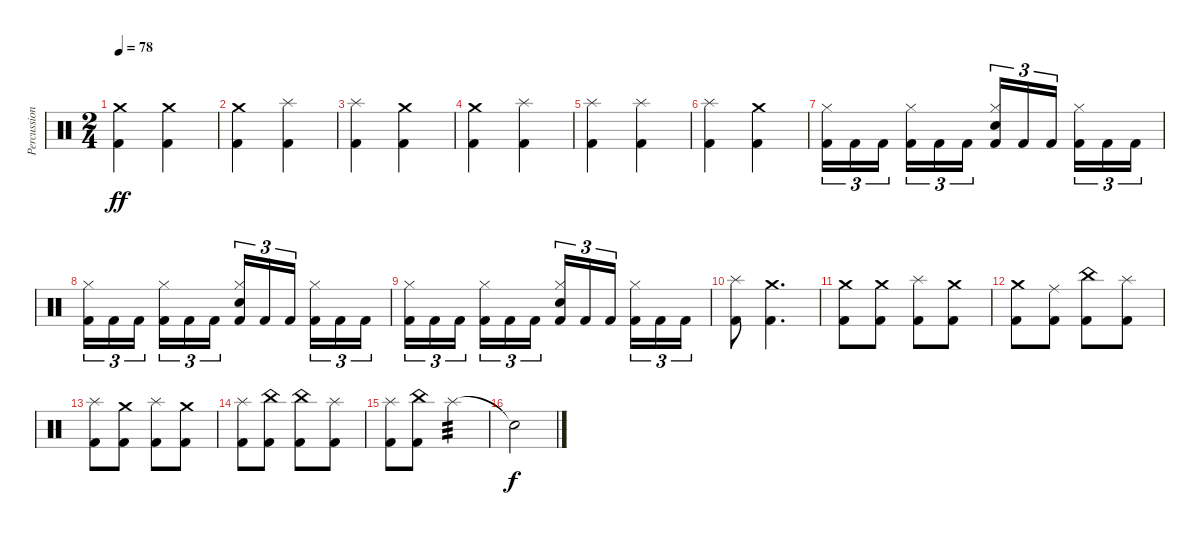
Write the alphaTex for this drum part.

\track ("Percussion" "Percussion") {instrument percussion}
\staff {score}
\articulation defaults
\ts (2 4)
\tempo 78
\clef neutral
\ks c
("Kick (hit) 2" "Crash medium (hit)").4{dy ff} ("Kick (hit) 2" "Crash medium (hit)").4 |
("Kick (hit) 2" "Crash medium (hit)").4 ("Kick (hit) 2" "Splash (hit)").4 |
("Kick (hit) 2" "Splash (hit)").4 ("Kick (hit) 2" "Crash medium (hit)").4 |
("Kick (hit) 2" "Crash medium (hit)").4 ("Kick (hit) 2" "Splash (hit)").4 |
("Kick (hit) 2" "Splash (hit)").4 ("Kick (hit) 2" "Splash (hit)").4 |
("Kick (hit) 2" "Splash (hit)").4 ("Kick (hit) 2" "Crash medium (hit)").4 |
("Kick (hit) 2" "Hi-Hat (closed)").16{tu (3 2)} "Kick (hit) 2".16{tu (3 2)} "Kick (hit) 2".16{tu (3 2) beam splitsecondary} ("Kick (hit) 2" "Hi-Hat (closed)").16{tu (3 2)} "Kick (hit) 2".16{tu (3 2)} "Kick (hit) 2".16{tu (3 2)} ("Kick (hit) 2" "Snare (hit) 2" "Hi-Hat (closed)").16{tu (3 2)} "Kick (hit) 2".16{tu (3 2)} "Kick (hit) 2".16{tu (3 2) beam splitsecondary} ("Kick (hit) 2" "Hi-Hat (closed)").16{tu (3 2)} "Kick (hit) 2".16{tu (3 2)} "Kick (hit) 2".16{tu (3 2)} |
("Kick (hit) 2" "Hi-Hat (closed)").16{tu (3 2)} "Kick (hit) 2".16{tu (3 2)} "Kick (hit) 2".16{tu (3 2) beam splitsecondary} ("Kick (hit) 2" "Hi-Hat (closed)").16{tu (3 2)} "Kick (hit) 2".16{tu (3 2)} "Kick (hit) 2".16{tu (3 2)} ("Kick (hit) 2" "Snare (hit) 2" "Hi-Hat (closed)").16{tu (3 2)} "Kick (hit) 2".16{tu (3 2)} "Kick (hit) 2".16{tu (3 2) beam splitsecondary} ("Kick (hit) 2" "Hi-Hat (closed)").16{tu (3 2)} "Kick (hit) 2".16{tu (3 2)} "Kick (hit) 2".16{tu (3 2)} |
("Kick (hit) 2" "Hi-Hat (closed)").16{tu (3 2)} "Kick (hit) 2".16{tu (3 2)} "Kick (hit) 2".16{tu (3 2) beam splitsecondary} ("Kick (hit) 2" "Hi-Hat (closed)").16{tu (3 2)} "Kick (hit) 2".16{tu (3 2)} "Kick (hit) 2".16{tu (3 2)} ("Kick (hit) 2" "Snare (hit) 2" "Hi-Hat (closed)").16{tu (3 2)} "Kick (hit) 2".16{tu (3 2)} "Kick (hit) 2".16{tu (3 2) beam splitsecondary} ("Kick (hit) 2" "Hi-Hat (closed)").16{tu (3 2)} "Kick (hit) 2".16{tu (3 2)} "Kick (hit) 2".16{tu (3 2)} |
("Kick (hit) 2" "Splash (hit)").8 ("Kick (hit) 2" "Crash medium (hit)").4{d} |
("Kick (hit) 2" "Crash medium (hit)").8 ("Kick (hit) 2" "Crash medium (hit)").8 ("Kick (hit) 2" "Splash (hit)").8 ("Kick (hit) 2" "Crash medium (hit)").8 |
("Kick (hit) 2" "Crash medium (hit)").8 ("Kick (hit) 2" "Ride (middle)").8 ("Kick (hit) 2" "China (hit)").8 ("Kick (hit) 2" "Splash (hit)").8 |
("Kick (hit) 2" "Splash (hit)").8 ("Kick (hit) 2" "Crash medium (hit)").8 ("Kick (hit) 2" "Splash (hit)").8 ("Kick (hit) 2" "Crash medium (hit)").8 |
("Kick (hit) 2" "Splash (hit)").8 ("Kick (hit) 2" "China (hit)").8 ("Kick (hit) 2" "China (hit)").8 ("Kick (hit) 2" "Splash (hit)").8 |
("Kick (hit) 2" "Splash (hit)").8 ("Kick (hit) 2" "China (hit)").8 "Splash (hit)".4{tp 3} |
"Snare (hit)"{t}.2{dy f}
